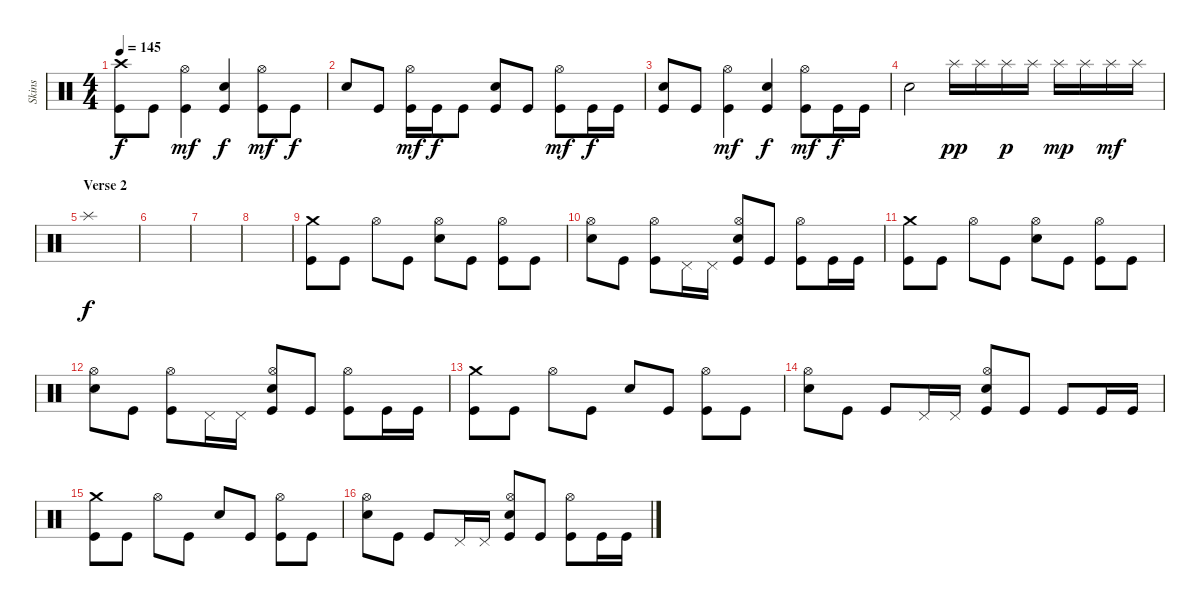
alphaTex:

\track ("Skins" "Skins") {instrument percussion}
\staff {score}
\articulation defaults
\ts (4 4)
\tempo 145
\clef neutral
\ks c
("Crash high (hit)" "Kick (hit)").8{dy f} "Kick (hit)".8 ("Hi-Hat (open)" "Kick (hit)").4{dy mf} ("Electric Snare (hit)" "Kick (hit)").4{dy f} ("Hi-Hat (open)" "Kick (hit)").8{dy mf} "Kick (hit)".8{dy f} |
"Electric Snare (hit)".8 "Kick (hit)".8 ("Hi-Hat (open)" "Kick (hit)").16{dy mf} "Kick (hit)".16{dy f} "Kick (hit)".8 ("Electric Snare (hit)" "Kick (hit)").8 "Kick (hit)".8 ("Hi-Hat (open)" "Kick (hit)").8{dy mf} "Kick (hit)".16{dy f} "Kick (hit)".16 |
("Electric Snare (hit)" "Kick (hit)").8 "Kick (hit)".8 ("Hi-Hat (open)" "Kick (hit)").4{dy mf} ("Electric Snare (hit)" "Kick (hit)").4{dy f} ("Hi-Hat (open)" "Kick (hit)").8{dy mf} "Kick (hit)".16{dy f} "Kick (hit)".16 |
"Snare (hit) 2".2 "Splash (hit)".16{dy pp} "Splash (hit)".16 "Splash (hit)".16{dy p} "Splash (hit)".16 "Splash (hit)".16{dy mp} "Splash (hit)".16 "Splash (hit)".16{dy mf} "Splash (hit)".16 |
\section ("" "Verse 2")
"Splash (hit)".1{dy f} |
|
|
|
("Crash medium (hit)" "Kick (hit)").8 "Kick (hit)".8 "Hi-Hat (open)".8 "Kick (hit)".8 ("Hi-Hat (open)" "Electric Snare (hit)").8 "Kick (hit)".8 ("Hi-Hat (open)" "Kick (hit)").8 "Kick (hit)".8 |
("Hi-Hat (open)" "Electric Snare (hit)").8 "Kick (hit)".8 ("Hi-Hat (open)" "Kick (hit)").8 "Pedal Hi-Hat (hit)".16 "Pedal Hi-Hat (hit)".16 ("Hi-Hat (open)" "Electric Snare (hit)" "Kick (hit)").8 "Kick (hit)".8 ("Hi-Hat (open)" "Kick (hit)").8 "Kick (hit)".16 "Kick (hit)".16 |
("Crash medium (hit)" "Kick (hit)").8 "Kick (hit)".8 "Hi-Hat (open)".8 "Kick (hit)".8 ("Hi-Hat (open)" "Electric Snare (hit)").8 "Kick (hit)".8 ("Hi-Hat (open)" "Kick (hit)").8 "Kick (hit)".8 |
("Hi-Hat (open)" "Electric Snare (hit)").8 "Kick (hit)".8 ("Hi-Hat (open)" "Kick (hit)").8 "Pedal Hi-Hat (hit)".16 "Pedal Hi-Hat (hit)".16 ("Hi-Hat (open)" "Electric Snare (hit)" "Kick (hit)").8 "Kick (hit)".8 ("Hi-Hat (open)" "Kick (hit)").8 "Kick (hit)".16 "Kick (hit)".16 |
("Crash medium (hit)" "Kick (hit)").8 "Kick (hit)".8 "Hi-Hat (open)".8 "Kick (hit)".8 "Electric Snare (hit)".8 "Kick (hit)".8 ("Hi-Hat (open)" "Kick (hit)").8 "Kick (hit)".8 |
("Hi-Hat (open)" "Electric Snare (hit)").8 "Kick (hit)".8 "Kick (hit)".8 "Pedal Hi-Hat (hit)".16 "Pedal Hi-Hat (hit)".16 ("Hi-Hat (open)" "Electric Snare (hit)" "Kick (hit)").8 "Kick (hit)".8 "Kick (hit)".8 "Kick (hit)".16 "Kick (hit)".16 |
("Crash medium (hit)" "Kick (hit)").8 "Kick (hit)".8 "Hi-Hat (open)".8 "Kick (hit)".8 "Electric Snare (hit)".8 "Kick (hit)".8 ("Hi-Hat (open)" "Kick (hit)").8 "Kick (hit)".8 |
("Hi-Hat (open)" "Electric Snare (hit)").8 "Kick (hit)".8 "Kick (hit)".8 "Pedal Hi-Hat (hit)".16 "Pedal Hi-Hat (hit)".16 ("Hi-Hat (open)" "Electric Snare (hit)" "Kick (hit)").8 "Kick (hit)".8 ("Hi-Hat (open)" "Kick (hit)").8 "Kick (hit)".16 "Kick (hit)".16
